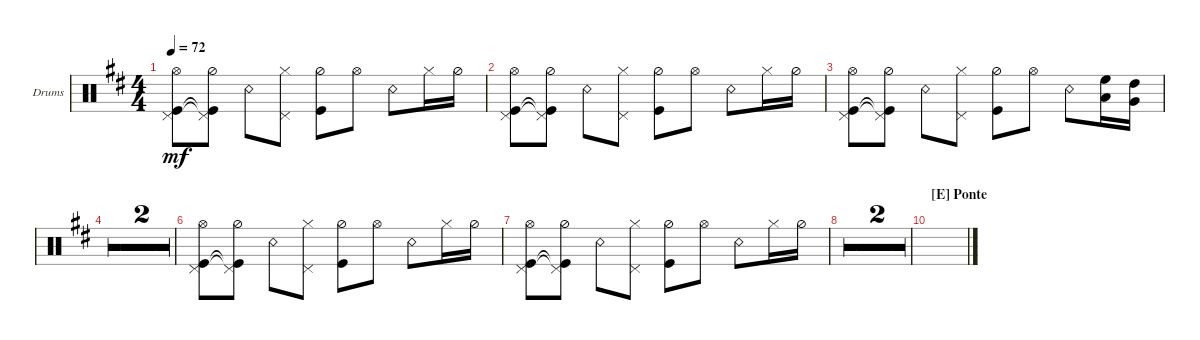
\defaultSystemsLayout 4
\bracketExtendMode groupsimilarinstruments
\firstSystemTrackNameOrientation horizontal
\otherSystemsTrackNameOrientation horizontal
\track ("Drum" "Drums") {multiBarRest instrument percussion}
\staff {score}
\articulation defaults
\ts (4 4)
\tempo 72
\clef neutral
\ks d
("Kick (hit)" "Pedal Hi-Hat (hit)" "Hi-Hat (open)").8{dy mf} ("Kick (hit)"{t} "Pedal Hi-Hat (hit)"{t} "Hi-Hat (half)").8 "Snare (rim shot)".8 ("Hi-Hat (closed)" "Pedal Hi-Hat (hit)").8 ("Hi-Hat (half)" "Kick (hit)").8 "Hi-Hat (open)".8 "Snare (rim shot)".8 "Hi-Hat (closed)".16 "Hi-Hat (half)".16 |
("Kick (hit)" "Pedal Hi-Hat (hit)" "Hi-Hat (open)").8 ("Kick (hit)"{t} "Pedal Hi-Hat (hit)"{t} "Hi-Hat (half)").8 "Snare (rim shot)".8 ("Hi-Hat (closed)" "Pedal Hi-Hat (hit)").8 ("Hi-Hat (half)" "Kick (hit)").8 "Hi-Hat (open)".8 "Snare (rim shot)".8 "Hi-Hat (closed)".16 "Hi-Hat (half)".16 |
("Kick (hit)" "Pedal Hi-Hat (hit)" "Hi-Hat (open)").8 ("Kick (hit)"{t} "Pedal Hi-Hat (hit)"{t} "Hi-Hat (half)").8 "Snare (rim shot)".8 ("Hi-Hat (closed)" "Pedal Hi-Hat (hit)").8 ("Hi-Hat (half)" "Kick (hit)").8 "Hi-Hat (open)".8 "Snare (rim shot)".8 ("High Floor Tom (hit)" "Low Tom (hit)").16 ("High Tom (hit)" "Very Low Tom (hit)").16 |
|
|
("Kick (hit)" "Pedal Hi-Hat (hit)" "Hi-Hat (open)").8 ("Kick (hit)"{t} "Pedal Hi-Hat (hit)"{t} "Hi-Hat (half)").8 "Snare (rim shot)".8 ("Hi-Hat (closed)" "Pedal Hi-Hat (hit)").8 ("Hi-Hat (half)" "Kick (hit)").8 "Hi-Hat (open)".8 "Snare (rim shot)".8 "Hi-Hat (closed)".16 "Hi-Hat (half)".16 |
("Kick (hit)" "Pedal Hi-Hat (hit)" "Hi-Hat (open)").8 ("Kick (hit)"{t} "Pedal Hi-Hat (hit)"{t} "Hi-Hat (half)").8 "Snare (rim shot)".8 ("Hi-Hat (closed)" "Pedal Hi-Hat (hit)").8 ("Hi-Hat (half)" "Kick (hit)").8 "Hi-Hat (open)".8 "Snare (rim shot)".8 "Hi-Hat (closed)".16 "Hi-Hat (half)".16 |
|
|
\section ("E" "Ponte")
